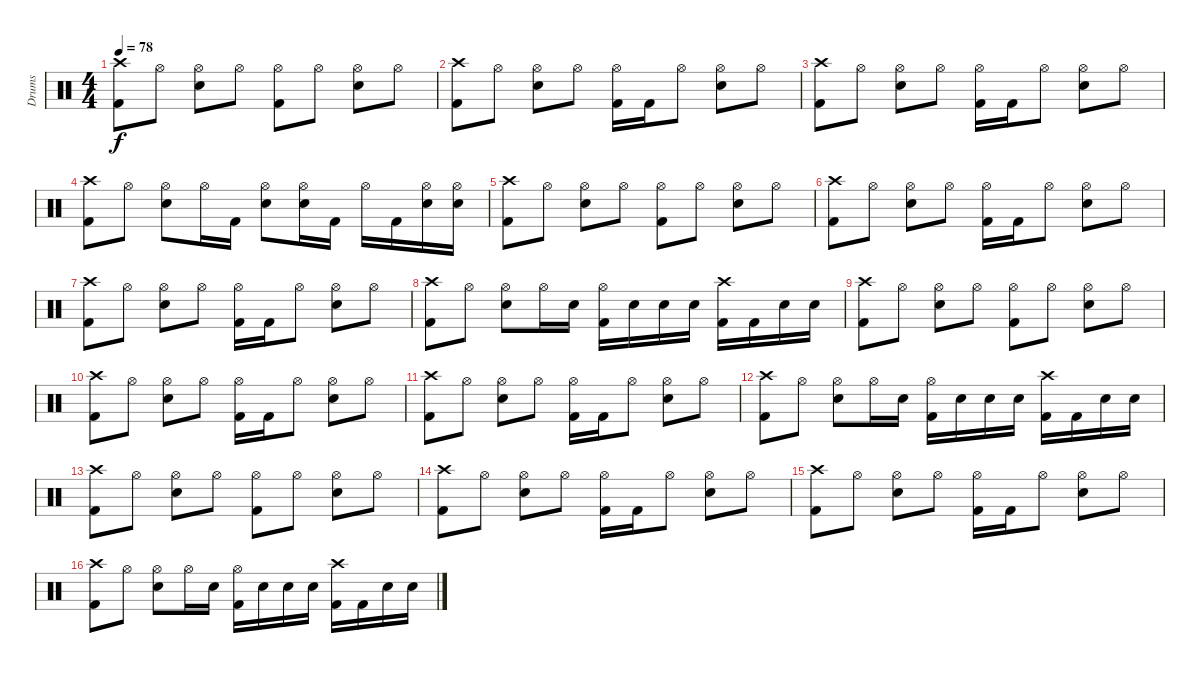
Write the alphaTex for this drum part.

\track ("Drums" "Drums") {instrument percussion}
\staff {score}
\articulation defaults
\ts (4 4)
\tempo 78
\clef neutral
\ks c
("Crash high (hit)" "Kick (hit) 2").8{dy f} "Hi-Hat (open)".8 ("Hi-Hat (open)" "Snare (hit) 2").8 "Hi-Hat (open)".8 ("Hi-Hat (open)" "Kick (hit) 2").8 "Hi-Hat (open)".8 ("Hi-Hat (open)" "Snare (hit) 2").8 "Hi-Hat (open)".8 |
("Crash high (hit)" "Kick (hit) 2").8 "Hi-Hat (open)".8 ("Hi-Hat (open)" "Snare (hit) 2").8 "Hi-Hat (open)".8 ("Hi-Hat (open)" "Kick (hit) 2").16 "Kick (hit) 2".16 "Hi-Hat (open)".8 ("Hi-Hat (open)" "Snare (hit) 2").8 "Hi-Hat (open)".8 |
("Crash high (hit)" "Kick (hit) 2").8 "Hi-Hat (open)".8 ("Hi-Hat (open)" "Snare (hit) 2").8 "Hi-Hat (open)".8 ("Hi-Hat (open)" "Kick (hit) 2").16 "Kick (hit) 2".16 "Hi-Hat (open)".8 ("Hi-Hat (open)" "Snare (hit) 2").8 "Hi-Hat (open)".8 |
("Crash high (hit)" "Kick (hit) 2").8 "Hi-Hat (open)".8 ("Hi-Hat (open)" "Snare (hit) 2").8 "Hi-Hat (open)".16 "Kick (hit) 2".16 ("Hi-Hat (open)" "Snare (hit) 2").8 ("Hi-Hat (open)" "Snare (hit) 2").16 "Kick (hit) 2".16 "Hi-Hat (open)".16 "Kick (hit) 2".16 ("Hi-Hat (open)" "Snare (hit) 2").16 ("Hi-Hat (open)" "Snare (hit) 2").16 |
("Crash high (hit)" "Kick (hit) 2").8 "Hi-Hat (open)".8 ("Hi-Hat (open)" "Snare (hit) 2").8 "Hi-Hat (open)".8 ("Hi-Hat (open)" "Kick (hit) 2").8 "Hi-Hat (open)".8 ("Hi-Hat (open)" "Snare (hit) 2").8 "Hi-Hat (open)".8 |
("Crash high (hit)" "Kick (hit) 2").8 "Hi-Hat (open)".8 ("Hi-Hat (open)" "Snare (hit) 2").8 "Hi-Hat (open)".8 ("Hi-Hat (open)" "Kick (hit) 2").16 "Kick (hit) 2".16 "Hi-Hat (open)".8 ("Hi-Hat (open)" "Snare (hit) 2").8 "Hi-Hat (open)".8 |
("Crash high (hit)" "Kick (hit) 2").8 "Hi-Hat (open)".8 ("Hi-Hat (open)" "Snare (hit) 2").8 "Hi-Hat (open)".8 ("Hi-Hat (open)" "Kick (hit) 2").16 "Kick (hit) 2".16 "Hi-Hat (open)".8 ("Hi-Hat (open)" "Snare (hit) 2").8 "Hi-Hat (open)".8 |
("Crash high (hit)" "Kick (hit) 2").8 "Hi-Hat (open)".8 ("Hi-Hat (open)" "Snare (hit) 2").8 "Hi-Hat (open)".16 "Snare (hit) 2".16 ("Hi-Hat (open)" "Kick (hit) 2").16 "Snare (hit) 2".16 "Snare (hit) 2".16 "Snare (hit) 2".16 ("Crash high (hit)" "Kick (hit) 2").16 "Kick (hit) 2".16 "Snare (hit) 2".16 "Snare (hit) 2".16 |
("Crash high (hit)" "Kick (hit) 2").8 "Hi-Hat (open)".8 ("Hi-Hat (open)" "Snare (hit) 2").8 "Hi-Hat (open)".8 ("Hi-Hat (open)" "Kick (hit) 2").8 "Hi-Hat (open)".8 ("Hi-Hat (open)" "Snare (hit) 2").8 "Hi-Hat (open)".8 |
("Crash high (hit)" "Kick (hit) 2").8 "Hi-Hat (open)".8 ("Hi-Hat (open)" "Snare (hit) 2").8 "Hi-Hat (open)".8 ("Hi-Hat (open)" "Kick (hit) 2").16 "Kick (hit) 2".16 "Hi-Hat (open)".8 ("Hi-Hat (open)" "Snare (hit) 2").8 "Hi-Hat (open)".8 |
("Crash high (hit)" "Kick (hit) 2").8 "Hi-Hat (open)".8 ("Hi-Hat (open)" "Snare (hit) 2").8 "Hi-Hat (open)".8 ("Hi-Hat (open)" "Kick (hit) 2").16 "Kick (hit) 2".16 "Hi-Hat (open)".8 ("Hi-Hat (open)" "Snare (hit) 2").8 "Hi-Hat (open)".8 |
("Crash high (hit)" "Kick (hit) 2").8 "Hi-Hat (open)".8 ("Hi-Hat (open)" "Snare (hit) 2").8 "Hi-Hat (open)".16 "Snare (hit) 2".16 ("Hi-Hat (open)" "Kick (hit) 2").16 "Snare (hit) 2".16 "Snare (hit) 2".16 "Snare (hit) 2".16 ("Crash high (hit)" "Kick (hit) 2").16 "Kick (hit) 2".16 "Snare (hit) 2".16 "Snare (hit) 2".16 |
("Crash high (hit)" "Kick (hit) 2").8 "Hi-Hat (open)".8 ("Hi-Hat (open)" "Snare (hit) 2").8 "Hi-Hat (open)".8 ("Hi-Hat (open)" "Kick (hit) 2").8 "Hi-Hat (open)".8 ("Hi-Hat (open)" "Snare (hit) 2").8 "Hi-Hat (open)".8 |
("Crash high (hit)" "Kick (hit) 2").8 "Hi-Hat (open)".8 ("Hi-Hat (open)" "Snare (hit) 2").8 "Hi-Hat (open)".8 ("Hi-Hat (open)" "Kick (hit) 2").16 "Kick (hit) 2".16 "Hi-Hat (open)".8 ("Hi-Hat (open)" "Snare (hit) 2").8 "Hi-Hat (open)".8 |
("Crash high (hit)" "Kick (hit) 2").8 "Hi-Hat (open)".8 ("Hi-Hat (open)" "Snare (hit) 2").8 "Hi-Hat (open)".8 ("Hi-Hat (open)" "Kick (hit) 2").16 "Kick (hit) 2".16 "Hi-Hat (open)".8 ("Hi-Hat (open)" "Snare (hit) 2").8 "Hi-Hat (open)".8 |
("Crash high (hit)" "Kick (hit) 2").8 "Hi-Hat (open)".8 ("Hi-Hat (open)" "Snare (hit) 2").8 "Hi-Hat (open)".16 "Snare (hit) 2".16 ("Hi-Hat (open)" "Kick (hit) 2").16 "Snare (hit) 2".16 "Snare (hit) 2".16 "Snare (hit) 2".16 ("Crash high (hit)" "Kick (hit) 2").16 "Kick (hit) 2".16 "Snare (hit) 2".16 "Snare (hit) 2".16
